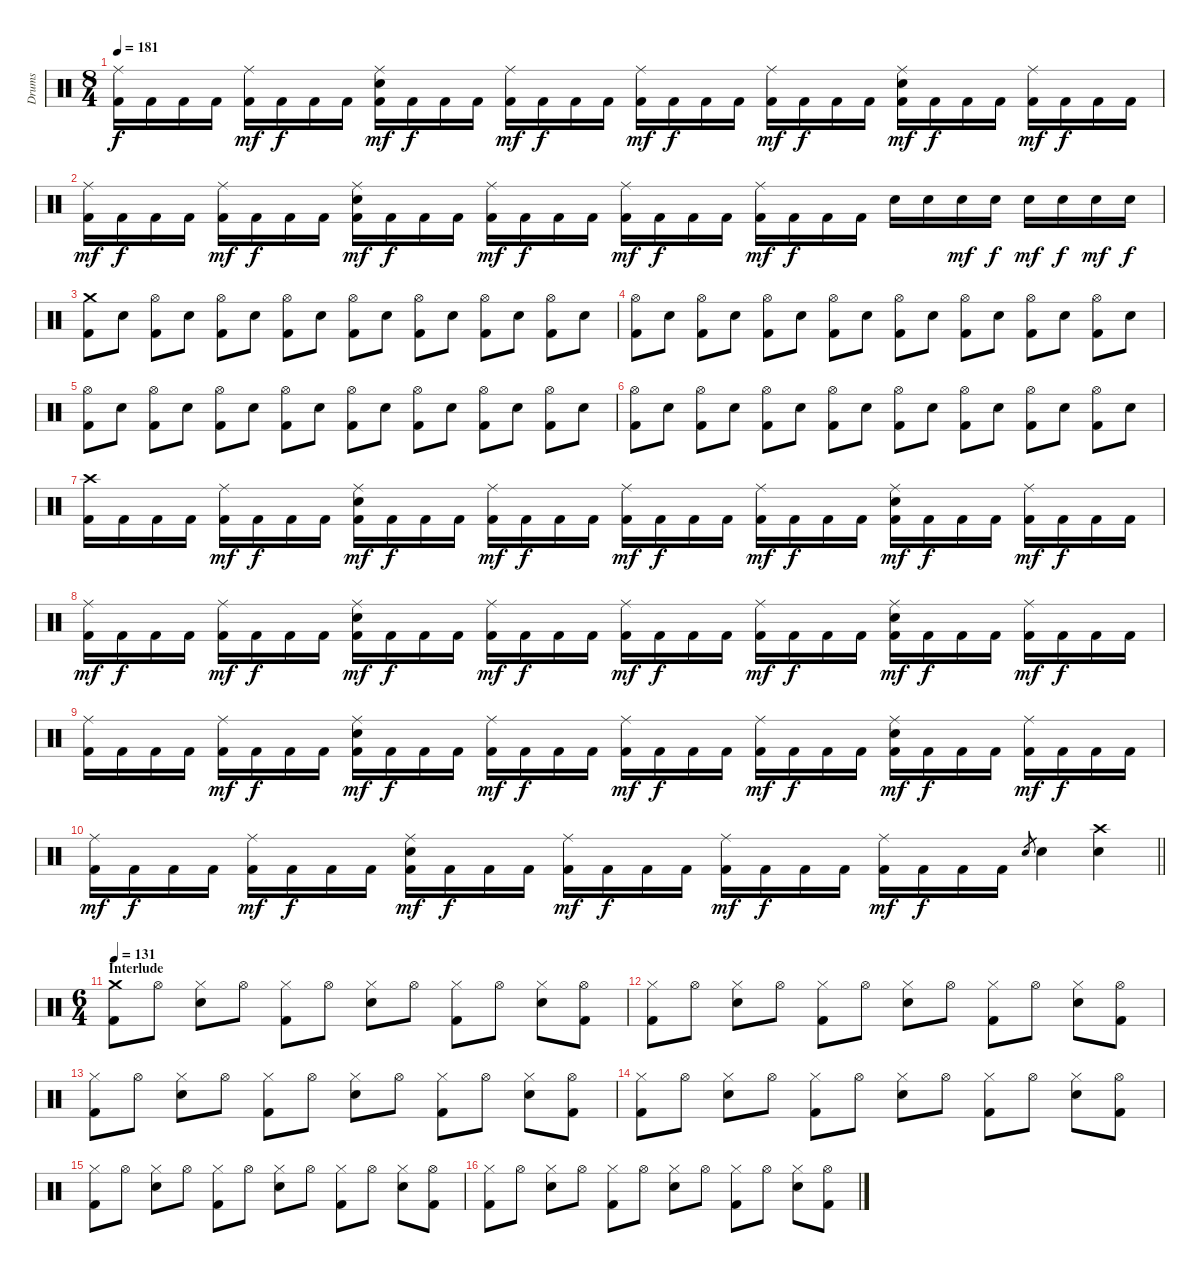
\track ("Drums" "Drums") {instrument percussion}
\staff {score}
\articulation defaults
\ts (8 4)
\tempo 181
\clef neutral
\ks c
("Ride (middle)" "Kick (hit) 2").16{dy f} "Kick (hit) 2".16 "Kick (hit) 2".16 "Kick (hit) 2".16 ("Ride (middle)" "Kick (hit) 2").16{dy mf} "Kick (hit) 2".16{dy f} "Kick (hit) 2".16 "Kick (hit) 2".16 ("Ride (middle)" "Snare (hit) 2" "Kick (hit) 2").16{dy mf} "Kick (hit) 2".16{dy f} "Kick (hit) 2".16 "Kick (hit) 2".16 ("Ride (middle)" "Kick (hit) 2").16{dy mf} "Kick (hit) 2".16{dy f} "Kick (hit) 2".16 "Kick (hit) 2".16 ("Ride (middle)" "Kick (hit) 2").16{dy mf} "Kick (hit) 2".16{dy f} "Kick (hit) 2".16 "Kick (hit) 2".16 ("Ride (middle)" "Kick (hit) 2").16{dy mf} "Kick (hit) 2".16{dy f} "Kick (hit) 2".16 "Kick (hit) 2".16 ("Ride (middle)" "Snare (hit) 2" "Kick (hit) 2").16{dy mf} "Kick (hit) 2".16{dy f} "Kick (hit) 2".16 "Kick (hit) 2".16 ("Ride (middle)" "Kick (hit) 2").16{dy mf} "Kick (hit) 2".16{dy f} "Kick (hit) 2".16 "Kick (hit) 2".16 |
("Ride (middle)" "Kick (hit) 2").16{dy mf} "Kick (hit) 2".16{dy f} "Kick (hit) 2".16 "Kick (hit) 2".16 ("Ride (middle)" "Kick (hit) 2").16{dy mf} "Kick (hit) 2".16{dy f} "Kick (hit) 2".16 "Kick (hit) 2".16 ("Ride (middle)" "Snare (hit) 2" "Kick (hit) 2").16{dy mf} "Kick (hit) 2".16{dy f} "Kick (hit) 2".16 "Kick (hit) 2".16 ("Ride (middle)" "Kick (hit) 2").16{dy mf} "Kick (hit) 2".16{dy f} "Kick (hit) 2".16 "Kick (hit) 2".16 ("Ride (middle)" "Kick (hit) 2").16{dy mf} "Kick (hit) 2".16{dy f} "Kick (hit) 2".16 "Kick (hit) 2".16 ("Ride (middle)" "Kick (hit) 2").16{dy mf} "Kick (hit) 2".16{dy f} "Kick (hit) 2".16 "Kick (hit) 2".16 "Snare (hit) 2".16 "Snare (hit) 2".16 "Snare (hit) 2".16{dy mf} "Snare (hit) 2".16{dy f} "Snare (hit) 2".16{dy mf} "Snare (hit) 2".16{dy f} "Snare (hit) 2".16{dy mf} "Snare (hit) 2".16{dy f} |
("Crash medium (hit)" "Kick (hit) 2").8 "Snare (hit) 2".8 ("Hi-Hat (open)" "Kick (hit) 2").8 "Snare (hit) 2".8 ("Hi-Hat (open)" "Kick (hit) 2").8 "Snare (hit) 2".8 ("Hi-Hat (open)" "Kick (hit) 2").8 "Snare (hit) 2".8 ("Hi-Hat (open)" "Kick (hit) 2").8 "Snare (hit) 2".8 ("Hi-Hat (open)" "Kick (hit) 2").8 "Snare (hit) 2".8 ("Hi-Hat (open)" "Kick (hit) 2").8 "Snare (hit) 2".8 ("Hi-Hat (open)" "Kick (hit) 2").8 "Snare (hit) 2".8 |
("Hi-Hat (open)" "Kick (hit) 2").8 "Snare (hit) 2".8 ("Hi-Hat (open)" "Kick (hit) 2").8 "Snare (hit) 2".8 ("Hi-Hat (open)" "Kick (hit) 2").8 "Snare (hit) 2".8 ("Hi-Hat (open)" "Kick (hit) 2").8 "Snare (hit) 2".8 ("Hi-Hat (open)" "Kick (hit) 2").8 "Snare (hit) 2".8 ("Hi-Hat (open)" "Kick (hit) 2").8 "Snare (hit) 2".8 ("Hi-Hat (open)" "Kick (hit) 2").8 "Snare (hit) 2".8 ("Hi-Hat (open)" "Kick (hit) 2").8 "Snare (hit) 2".8 |
("Hi-Hat (open)" "Kick (hit) 2").8 "Snare (hit) 2".8 ("Hi-Hat (open)" "Kick (hit) 2").8 "Snare (hit) 2".8 ("Hi-Hat (open)" "Kick (hit) 2").8 "Snare (hit) 2".8 ("Hi-Hat (open)" "Kick (hit) 2").8 "Snare (hit) 2".8 ("Hi-Hat (open)" "Kick (hit) 2").8 "Snare (hit) 2".8 ("Hi-Hat (open)" "Kick (hit) 2").8 "Snare (hit) 2".8 ("Hi-Hat (open)" "Kick (hit) 2").8 "Snare (hit) 2".8 ("Hi-Hat (open)" "Kick (hit) 2").8 "Snare (hit) 2".8 |
("Hi-Hat (open)" "Kick (hit) 2").8 "Snare (hit) 2".8 ("Hi-Hat (open)" "Kick (hit) 2").8 "Snare (hit) 2".8 ("Hi-Hat (open)" "Kick (hit) 2").8 "Snare (hit) 2".8 ("Hi-Hat (open)" "Kick (hit) 2").8 "Snare (hit) 2".8 ("Hi-Hat (open)" "Kick (hit) 2").8 "Snare (hit) 2".8 ("Hi-Hat (open)" "Kick (hit) 2").8 "Snare (hit) 2".8 ("Hi-Hat (open)" "Kick (hit) 2").8 "Snare (hit) 2".8 ("Hi-Hat (open)" "Kick (hit) 2").8 "Snare (hit) 2".8 |
("Crash high (hit)" "Kick (hit) 2").16 "Kick (hit) 2".16 "Kick (hit) 2".16 "Kick (hit) 2".16 ("Ride (middle)" "Kick (hit) 2").16{dy mf} "Kick (hit) 2".16{dy f} "Kick (hit) 2".16 "Kick (hit) 2".16 ("Ride (middle)" "Snare (hit) 2" "Kick (hit) 2").16{dy mf} "Kick (hit) 2".16{dy f} "Kick (hit) 2".16 "Kick (hit) 2".16 ("Ride (middle)" "Kick (hit) 2").16{dy mf} "Kick (hit) 2".16{dy f} "Kick (hit) 2".16 "Kick (hit) 2".16 ("Ride (middle)" "Kick (hit) 2").16{dy mf} "Kick (hit) 2".16{dy f} "Kick (hit) 2".16 "Kick (hit) 2".16 ("Ride (middle)" "Kick (hit) 2").16{dy mf} "Kick (hit) 2".16{dy f} "Kick (hit) 2".16 "Kick (hit) 2".16 ("Ride (middle)" "Snare (hit) 2" "Kick (hit) 2").16{dy mf} "Kick (hit) 2".16{dy f} "Kick (hit) 2".16 "Kick (hit) 2".16 ("Ride (middle)" "Kick (hit) 2").16{dy mf} "Kick (hit) 2".16{dy f} "Kick (hit) 2".16 "Kick (hit) 2".16 |
("Ride (middle)" "Kick (hit) 2").16{dy mf} "Kick (hit) 2".16{dy f} "Kick (hit) 2".16 "Kick (hit) 2".16 ("Ride (middle)" "Kick (hit) 2").16{dy mf} "Kick (hit) 2".16{dy f} "Kick (hit) 2".16 "Kick (hit) 2".16 ("Ride (middle)" "Snare (hit) 2" "Kick (hit) 2").16{dy mf} "Kick (hit) 2".16{dy f} "Kick (hit) 2".16 "Kick (hit) 2".16 ("Ride (middle)" "Kick (hit) 2").16{dy mf} "Kick (hit) 2".16{dy f} "Kick (hit) 2".16 "Kick (hit) 2".16 ("Ride (middle)" "Kick (hit) 2").16{dy mf} "Kick (hit) 2".16{dy f} "Kick (hit) 2".16 "Kick (hit) 2".16 ("Ride (middle)" "Kick (hit) 2").16{dy mf} "Kick (hit) 2".16{dy f} "Kick (hit) 2".16 "Kick (hit) 2".16 ("Ride (middle)" "Snare (hit) 2" "Kick (hit) 2").16{dy mf} "Kick (hit) 2".16{dy f} "Kick (hit) 2".16 "Kick (hit) 2".16 ("Ride (middle)" "Kick (hit) 2").16{dy mf} "Kick (hit) 2".16{dy f} "Kick (hit) 2".16 "Kick (hit) 2".16 |
("Ride (middle)" "Kick (hit) 2").16 "Kick (hit) 2".16 "Kick (hit) 2".16 "Kick (hit) 2".16 ("Ride (middle)" "Kick (hit) 2").16{dy mf} "Kick (hit) 2".16{dy f} "Kick (hit) 2".16 "Kick (hit) 2".16 ("Ride (middle)" "Snare (hit) 2" "Kick (hit) 2").16{dy mf} "Kick (hit) 2".16{dy f} "Kick (hit) 2".16 "Kick (hit) 2".16 ("Ride (middle)" "Kick (hit) 2").16{dy mf} "Kick (hit) 2".16{dy f} "Kick (hit) 2".16 "Kick (hit) 2".16 ("Ride (middle)" "Kick (hit) 2").16{dy mf} "Kick (hit) 2".16{dy f} "Kick (hit) 2".16 "Kick (hit) 2".16 ("Ride (middle)" "Kick (hit) 2").16{dy mf} "Kick (hit) 2".16{dy f} "Kick (hit) 2".16 "Kick (hit) 2".16 ("Ride (middle)" "Snare (hit) 2" "Kick (hit) 2").16{dy mf} "Kick (hit) 2".16{dy f} "Kick (hit) 2".16 "Kick (hit) 2".16 ("Ride (middle)" "Kick (hit) 2").16{dy mf} "Kick (hit) 2".16{dy f} "Kick (hit) 2".16 "Kick (hit) 2".16 |
\barLineRight lightlight
("Ride (middle)" "Kick (hit) 2").16{dy mf} "Kick (hit) 2".16{dy f} "Kick (hit) 2".16 "Kick (hit) 2".16 ("Ride (middle)" "Kick (hit) 2").16{dy mf} "Kick (hit) 2".16{dy f} "Kick (hit) 2".16 "Kick (hit) 2".16 ("Ride (middle)" "Snare (hit) 2" "Kick (hit) 2").16{dy mf} "Kick (hit) 2".16{dy f} "Kick (hit) 2".16 "Kick (hit) 2".16 ("Ride (middle)" "Kick (hit) 2").16{dy mf} "Kick (hit) 2".16{dy f} "Kick (hit) 2".16 "Kick (hit) 2".16 ("Ride (middle)" "Kick (hit) 2").16{dy mf} "Kick (hit) 2".16{dy f} "Kick (hit) 2".16 "Kick (hit) 2".16 ("Ride (middle)" "Kick (hit) 2").16{dy mf} "Kick (hit) 2".16{dy f} "Kick (hit) 2".16 "Kick (hit) 2".16 "Snare (hit) 2".8{gr} "Snare (hit) 2".4 ("Crash high (hit)" "Snare (hit) 2").4 |
\ts (6 4)
\section ("" "Interlude")
\tempo 131
("Crash medium (hit)" "Kick (hit) 2").8 "Hi-Hat (open)".8 ("Hi-Hat (closed)" "Snare (hit) 2").8 "Hi-Hat (open)".8 ("Hi-Hat (closed)" "Kick (hit) 2").8 "Hi-Hat (open)".8 ("Hi-Hat (closed)" "Snare (hit) 2").8 "Hi-Hat (open)".8 ("Hi-Hat (closed)" "Kick (hit) 2").8 "Hi-Hat (open)".8 ("Hi-Hat (closed)" "Snare (hit) 2").8 ("Hi-Hat (open)" "Kick (hit) 2").8 |
("Hi-Hat (closed)" "Kick (hit) 2").8 "Hi-Hat (open)".8 ("Hi-Hat (closed)" "Snare (hit) 2").8 "Hi-Hat (open)".8 ("Hi-Hat (closed)" "Kick (hit) 2").8 "Hi-Hat (open)".8 ("Hi-Hat (closed)" "Snare (hit) 2").8 "Hi-Hat (open)".8 ("Hi-Hat (closed)" "Kick (hit) 2").8 "Hi-Hat (open)".8 ("Hi-Hat (closed)" "Snare (hit) 2").8 ("Hi-Hat (open)" "Kick (hit) 2").8 |
("Hi-Hat (closed)" "Kick (hit) 2").8 "Hi-Hat (open)".8 ("Hi-Hat (closed)" "Snare (hit) 2").8 "Hi-Hat (open)".8 ("Hi-Hat (closed)" "Kick (hit) 2").8 "Hi-Hat (open)".8 ("Hi-Hat (closed)" "Snare (hit) 2").8 "Hi-Hat (open)".8 ("Hi-Hat (closed)" "Kick (hit) 2").8 "Hi-Hat (open)".8 ("Hi-Hat (closed)" "Snare (hit) 2").8 ("Hi-Hat (open)" "Kick (hit) 2").8 |
("Hi-Hat (closed)" "Kick (hit) 2").8 "Hi-Hat (open)".8 ("Hi-Hat (closed)" "Snare (hit) 2").8 "Hi-Hat (open)".8 ("Hi-Hat (closed)" "Kick (hit) 2").8 "Hi-Hat (open)".8 ("Hi-Hat (closed)" "Snare (hit) 2").8 "Hi-Hat (open)".8 ("Hi-Hat (closed)" "Kick (hit) 2").8 "Hi-Hat (open)".8 ("Hi-Hat (closed)" "Snare (hit) 2").8 ("Hi-Hat (open)" "Kick (hit) 2").8 |
("Hi-Hat (closed)" "Kick (hit) 2").8 "Hi-Hat (open)".8 ("Hi-Hat (closed)" "Snare (hit) 2").8 "Hi-Hat (open)".8 ("Hi-Hat (closed)" "Kick (hit) 2").8 "Hi-Hat (open)".8 ("Hi-Hat (closed)" "Snare (hit) 2").8 "Hi-Hat (open)".8 ("Hi-Hat (closed)" "Kick (hit) 2").8 "Hi-Hat (open)".8 ("Hi-Hat (closed)" "Snare (hit) 2").8 ("Hi-Hat (open)" "Kick (hit) 2").8 |
("Hi-Hat (closed)" "Kick (hit) 2").8 "Hi-Hat (open)".8 ("Hi-Hat (closed)" "Snare (hit) 2").8 "Hi-Hat (open)".8 ("Hi-Hat (closed)" "Kick (hit) 2").8 "Hi-Hat (open)".8 ("Hi-Hat (closed)" "Snare (hit) 2").8 "Hi-Hat (open)".8 ("Hi-Hat (closed)" "Kick (hit) 2").8 "Hi-Hat (open)".8 ("Hi-Hat (closed)" "Snare (hit) 2").8 ("Hi-Hat (open)" "Kick (hit) 2").8
